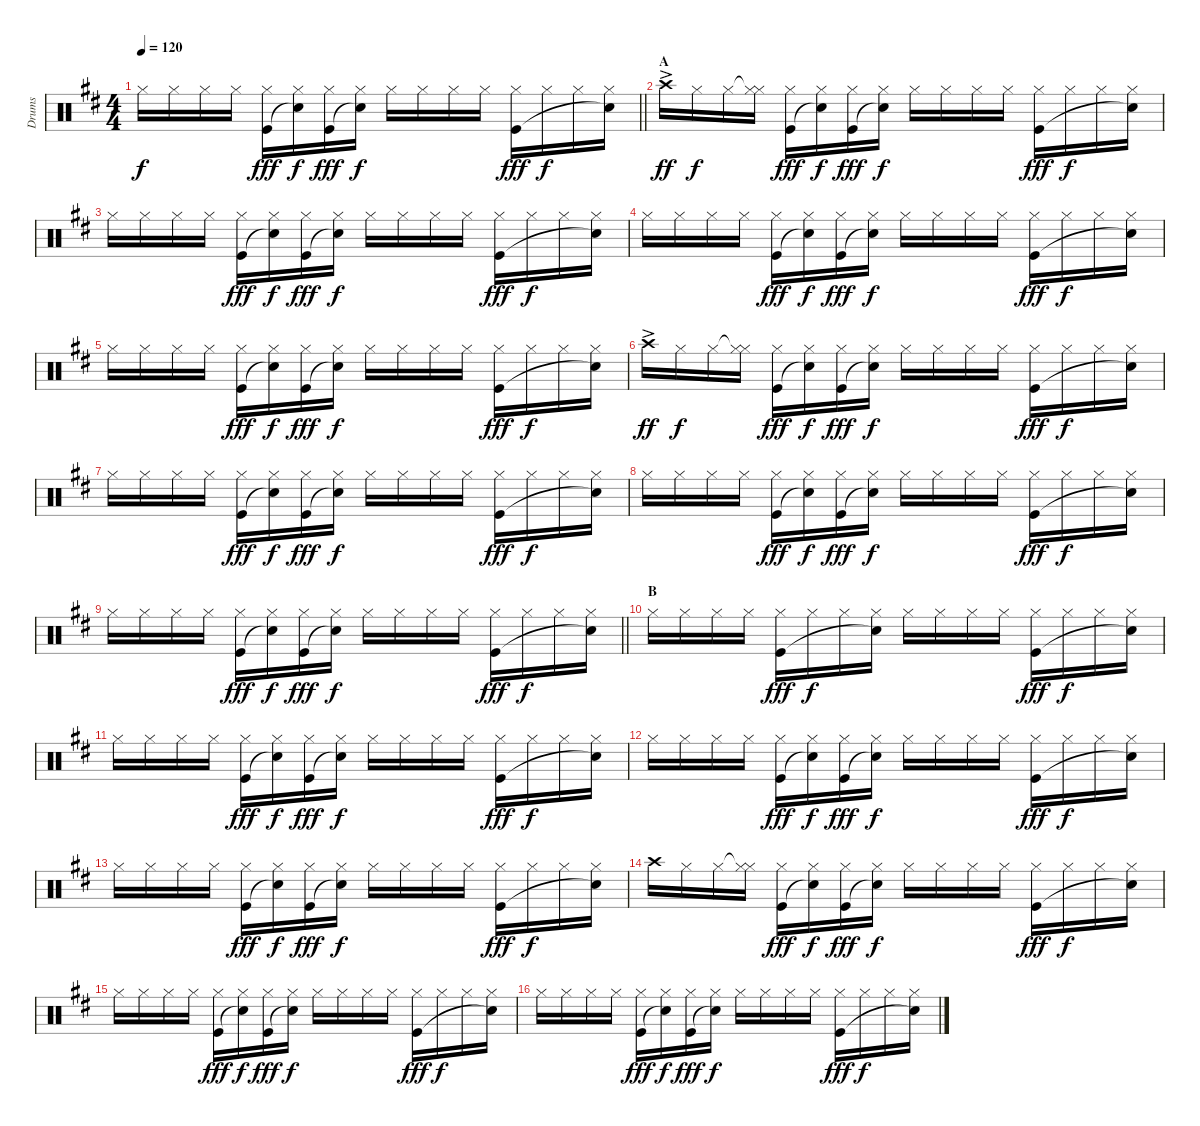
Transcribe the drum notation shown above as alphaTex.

\track ("Drums" "Drums") {instrument percussion}
\staff {score}
\articulation defaults
\ts (4 4)
\tempo 120
\clef neutral
\barLineRight lightlight
\ks d "Hi-Hat (closed)".16{dy f} "Hi-Hat (closed)".16 "Hi-Hat (closed)".16 "Hi-Hat (closed)".16
("Hi-Hat (closed)" "Kick (hit)").16{dy fff} ("Hi-Hat (closed)" "Snare (hit)"{t}).16{dy f} ("Hi-Hat (closed)" "Kick (hit)").16{dy fff} ("Hi-Hat (closed)" "Snare (hit)"{t}).16{dy f} "Hi-Hat (closed)".16 "Hi-Hat (closed)".16 "Hi-Hat (closed)".16 "Hi-Hat (closed)".16 ("Hi-Hat (closed)" "Kick (hit)").16{dy fff} "Hi-Hat (closed)".16{dy f} "Hi-Hat (closed)".16 ("Hi-Hat (closed)" "Snare (hit)"{t}).16 |
\section ("" "A")
"Crash high (hit)"{ac}.16{dy ff} "Hi-Hat (closed)".16{dy f} "Hi-Hat (closed)".16 ("Hi-Hat (closed)"{t} "Hi-Hat (closed)").16 ("Hi-Hat (closed)" "Kick (hit)").16{dy fff} ("Hi-Hat (closed)" "Snare (hit)"{t}).16{dy f} ("Hi-Hat (closed)" "Kick (hit)").16{dy fff} ("Hi-Hat (closed)" "Snare (hit)"{t}).16{dy f} "Hi-Hat (closed)".16 "Hi-Hat (closed)".16 "Hi-Hat (closed)".16 "Hi-Hat (closed)".16 ("Hi-Hat (closed)" "Kick (hit)").16{dy fff} "Hi-Hat (closed)".16{dy f} "Hi-Hat (closed)".16 ("Hi-Hat (closed)" "Snare (hit)"{t}).16 |
"Hi-Hat (closed)".16 "Hi-Hat (closed)".16 "Hi-Hat (closed)".16 "Hi-Hat (closed)".16 ("Hi-Hat (closed)" "Kick (hit)").16{dy fff} ("Hi-Hat (closed)" "Snare (hit)"{t}).16{dy f} ("Hi-Hat (closed)" "Kick (hit)").16{dy fff} ("Hi-Hat (closed)" "Snare (hit)"{t}).16{dy f} "Hi-Hat (closed)".16 "Hi-Hat (closed)".16 "Hi-Hat (closed)".16 "Hi-Hat (closed)".16 ("Hi-Hat (closed)" "Kick (hit)").16{dy fff} "Hi-Hat (closed)".16{dy f} "Hi-Hat (closed)".16 ("Hi-Hat (closed)" "Snare (hit)"{t}).16 |
"Hi-Hat (closed)".16 "Hi-Hat (closed)".16 "Hi-Hat (closed)".16 "Hi-Hat (closed)".16 ("Hi-Hat (closed)" "Kick (hit)").16{dy fff} ("Hi-Hat (closed)" "Snare (hit)"{t}).16{dy f} ("Hi-Hat (closed)" "Kick (hit)").16{dy fff} ("Hi-Hat (closed)" "Snare (hit)"{t}).16{dy f} "Hi-Hat (closed)".16 "Hi-Hat (closed)".16 "Hi-Hat (closed)".16 "Hi-Hat (closed)".16 ("Hi-Hat (closed)" "Kick (hit)").16{dy fff} "Hi-Hat (closed)".16{dy f} "Hi-Hat (closed)".16 ("Hi-Hat (closed)" "Snare (hit)"{t}).16 |
"Hi-Hat (closed)".16 "Hi-Hat (closed)".16 "Hi-Hat (closed)".16 "Hi-Hat (closed)".16 ("Hi-Hat (closed)" "Kick (hit)").16{dy fff} ("Hi-Hat (closed)" "Snare (hit)"{t}).16{dy f} ("Hi-Hat (closed)" "Kick (hit)").16{dy fff} ("Hi-Hat (closed)" "Snare (hit)"{t}).16{dy f} "Hi-Hat (closed)".16 "Hi-Hat (closed)".16 "Hi-Hat (closed)".16 "Hi-Hat (closed)".16 ("Hi-Hat (closed)" "Kick (hit)").16{dy fff} "Hi-Hat (closed)".16{dy f} "Hi-Hat (closed)".16 ("Hi-Hat (closed)" "Snare (hit)"{t}).16 |
"Crash high (hit)"{ac}.16{dy ff} "Hi-Hat (closed)".16{dy f} "Hi-Hat (closed)".16 ("Hi-Hat (closed)"{t} "Hi-Hat (closed)").16 ("Hi-Hat (closed)" "Kick (hit)").16{dy fff} ("Hi-Hat (closed)" "Snare (hit)"{t}).16{dy f} ("Hi-Hat (closed)" "Kick (hit)").16{dy fff} ("Hi-Hat (closed)" "Snare (hit)"{t}).16{dy f} "Hi-Hat (closed)".16 "Hi-Hat (closed)".16 "Hi-Hat (closed)".16 "Hi-Hat (closed)".16 ("Hi-Hat (closed)" "Kick (hit)").16{dy fff} "Hi-Hat (closed)".16{dy f} "Hi-Hat (closed)".16 ("Hi-Hat (closed)" "Snare (hit)"{t}).16 |
"Hi-Hat (closed)".16 "Hi-Hat (closed)".16 "Hi-Hat (closed)".16 "Hi-Hat (closed)".16 ("Hi-Hat (closed)" "Kick (hit)").16{dy fff} ("Hi-Hat (closed)" "Snare (hit)"{t}).16{dy f} ("Hi-Hat (closed)" "Kick (hit)").16{dy fff} ("Hi-Hat (closed)" "Snare (hit)"{t}).16{dy f} "Hi-Hat (closed)".16 "Hi-Hat (closed)".16 "Hi-Hat (closed)".16 "Hi-Hat (closed)".16 ("Hi-Hat (closed)" "Kick (hit)").16{dy fff} "Hi-Hat (closed)".16{dy f} "Hi-Hat (closed)".16 ("Hi-Hat (closed)" "Snare (hit)"{t}).16 |
"Hi-Hat (closed)".16 "Hi-Hat (closed)".16 "Hi-Hat (closed)".16 "Hi-Hat (closed)".16 ("Hi-Hat (closed)" "Kick (hit)").16{dy fff} ("Hi-Hat (closed)" "Snare (hit)"{t}).16{dy f} ("Hi-Hat (closed)" "Kick (hit)").16{dy fff} ("Hi-Hat (closed)" "Snare (hit)"{t}).16{dy f} "Hi-Hat (closed)".16 "Hi-Hat (closed)".16 "Hi-Hat (closed)".16 "Hi-Hat (closed)".16 ("Hi-Hat (closed)" "Kick (hit)").16{dy fff} "Hi-Hat (closed)".16{dy f} "Hi-Hat (closed)".16 ("Hi-Hat (closed)" "Snare (hit)"{t}).16 |
\barLineRight lightlight "Hi-Hat (closed)".16 "Hi-Hat (closed)".16 "Hi-Hat (closed)".16 "Hi-Hat (closed)".16
("Hi-Hat (closed)" "Kick (hit)").16{dy fff} ("Hi-Hat (closed)" "Snare (hit)"{t}).16{dy f} ("Hi-Hat (closed)" "Kick (hit)").16{dy fff} ("Hi-Hat (closed)" "Snare (hit)"{t}).16{dy f} "Hi-Hat (closed)".16 "Hi-Hat (closed)".16 "Hi-Hat (closed)".16 "Hi-Hat (closed)".16 ("Hi-Hat (closed)" "Kick (hit)").16{dy fff} "Hi-Hat (closed)".16{dy f} "Hi-Hat (closed)".16 ("Hi-Hat (closed)" "Snare (hit)"{t}).16 |
\section ("" "B")
"Hi-Hat (closed)".16 "Hi-Hat (closed)".16 "Hi-Hat (closed)".16 "Hi-Hat (closed)".16 ("Hi-Hat (closed)" "Kick (hit)").16{dy fff} "Hi-Hat (closed)".16{dy f} "Hi-Hat (closed)".16 ("Hi-Hat (closed)" "Snare (hit)"{t}).16 "Hi-Hat (closed)".16 "Hi-Hat (closed)".16 "Hi-Hat (closed)".16 "Hi-Hat (closed)".16 ("Hi-Hat (closed)" "Kick (hit)").16{dy fff} "Hi-Hat (closed)".16{dy f} "Hi-Hat (closed)".16 ("Hi-Hat (closed)" "Snare (hit)"{t}).16 |
"Hi-Hat (closed)".16 "Hi-Hat (closed)".16 "Hi-Hat (closed)".16 "Hi-Hat (closed)".16 ("Hi-Hat (closed)" "Kick (hit)").16{dy fff} ("Hi-Hat (closed)" "Snare (hit)"{t}).16{dy f} ("Hi-Hat (closed)" "Kick (hit)").16{dy fff} ("Hi-Hat (closed)" "Snare (hit)"{t}).16{dy f} "Hi-Hat (closed)".16 "Hi-Hat (closed)".16 "Hi-Hat (closed)".16 "Hi-Hat (closed)".16 ("Hi-Hat (closed)" "Kick (hit)").16{dy fff} "Hi-Hat (closed)".16{dy f} "Hi-Hat (closed)".16 ("Hi-Hat (closed)" "Snare (hit)"{t}).16 |
"Hi-Hat (closed)".16 "Hi-Hat (closed)".16 "Hi-Hat (closed)".16 "Hi-Hat (closed)".16 ("Hi-Hat (closed)" "Kick (hit)").16{dy fff} ("Hi-Hat (closed)" "Snare (hit)"{t}).16{dy f} ("Hi-Hat (closed)" "Kick (hit)").16{dy fff} ("Hi-Hat (closed)" "Snare (hit)"{t}).16{dy f} "Hi-Hat (closed)".16 "Hi-Hat (closed)".16 "Hi-Hat (closed)".16 "Hi-Hat (closed)".16 ("Hi-Hat (closed)" "Kick (hit)").16{dy fff} "Hi-Hat (closed)".16{dy f} "Hi-Hat (closed)".16 ("Hi-Hat (closed)" "Snare (hit)"{t}).16 |
"Hi-Hat (closed)".16 "Hi-Hat (closed)".16 "Hi-Hat (closed)".16 "Hi-Hat (closed)".16 ("Hi-Hat (closed)" "Kick (hit)").16{dy fff} ("Hi-Hat (closed)" "Snare (hit)"{t}).16{dy f} ("Hi-Hat (closed)" "Kick (hit)").16{dy fff} ("Hi-Hat (closed)" "Snare (hit)"{t}).16{dy f} "Hi-Hat (closed)".16 "Hi-Hat (closed)".16 "Hi-Hat (closed)".16 "Hi-Hat (closed)".16 ("Hi-Hat (closed)" "Kick (hit)").16{dy fff} "Hi-Hat (closed)".16{dy f} "Hi-Hat (closed)".16 ("Hi-Hat (closed)" "Snare (hit)"{t}).16 |
"Crash high (hit)".16 "Hi-Hat (closed)".16 "Hi-Hat (closed)".16 ("Hi-Hat (closed)"{t} "Hi-Hat (closed)").16 ("Hi-Hat (closed)" "Kick (hit)").16{dy fff} ("Hi-Hat (closed)" "Snare (hit)"{t}).16{dy f} ("Hi-Hat (closed)" "Kick (hit)").16{dy fff} ("Hi-Hat (closed)" "Snare (hit)"{t}).16{dy f} "Hi-Hat (closed)".16 "Hi-Hat (closed)".16 "Hi-Hat (closed)".16 "Hi-Hat (closed)".16 ("Hi-Hat (closed)" "Kick (hit)").16{dy fff} "Hi-Hat (closed)".16{dy f} "Hi-Hat (closed)".16 ("Hi-Hat (closed)" "Snare (hit)"{t}).16 |
"Hi-Hat (closed)".16 "Hi-Hat (closed)".16 "Hi-Hat (closed)".16 "Hi-Hat (closed)".16 ("Hi-Hat (closed)" "Kick (hit)").16{dy fff} ("Hi-Hat (closed)" "Snare (hit)"{t}).16{dy f} ("Hi-Hat (closed)" "Kick (hit)").16{dy fff} ("Hi-Hat (closed)" "Snare (hit)"{t}).16{dy f} "Hi-Hat (closed)".16 "Hi-Hat (closed)".16 "Hi-Hat (closed)".16 "Hi-Hat (closed)".16 ("Hi-Hat (closed)" "Kick (hit)").16{dy fff} "Hi-Hat (closed)".16{dy f} "Hi-Hat (closed)".16 ("Hi-Hat (closed)" "Snare (hit)"{t}).16 |
"Hi-Hat (closed)".16 "Hi-Hat (closed)".16 "Hi-Hat (closed)".16 "Hi-Hat (closed)".16 ("Hi-Hat (closed)" "Kick (hit)").16{dy fff} ("Hi-Hat (closed)" "Snare (hit)"{t}).16{dy f} ("Hi-Hat (closed)" "Kick (hit)").16{dy fff} ("Hi-Hat (closed)" "Snare (hit)"{t}).16{dy f} "Hi-Hat (closed)".16 "Hi-Hat (closed)".16 "Hi-Hat (closed)".16 "Hi-Hat (closed)".16 ("Hi-Hat (closed)" "Kick (hit)").16{dy fff} "Hi-Hat (closed)".16{dy f} "Hi-Hat (closed)".16 ("Hi-Hat (closed)" "Snare (hit)"{t}).16
